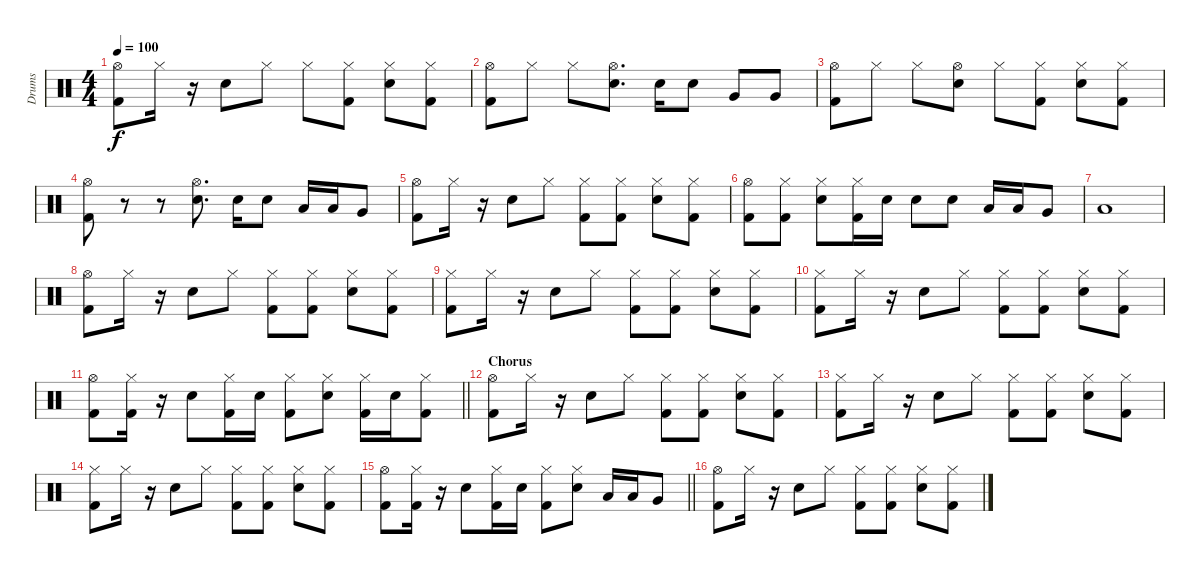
\track ("Drums" "Drums") {instrument percussion}
\staff {score}
\articulation defaults
\ts (4 4)
\tempo 100
\clef neutral
\ks c
("Kick (hit) 2" "Hi-Hat (open)").8{dy f} "Hi-Hat (closed)".16 r.16 "Electric Snare (hit)".8 "Hi-Hat (closed)".8 "Hi-Hat (closed)".8 ("Kick (hit) 2" "Hi-Hat (closed)").8 ("Electric Snare (hit)" "Hi-Hat (closed)").8 ("Kick (hit) 2" "Hi-Hat (closed)").8 |
("Kick (hit) 2" "Hi-Hat (open)").8 "Hi-Hat (closed)".8 "Hi-Hat (closed)".8 ("Electric Snare (hit)" "Hi-Hat (open)").8{d} "Electric Snare (hit)".16 "Electric Snare (hit)".8 "Very Low Tom (hit)".8 "Very Low Tom (hit)".8 |
("Kick (hit) 2" "Hi-Hat (open)").8 "Hi-Hat (closed)".8 "Hi-Hat (closed)".8 ("Electric Snare (hit)" "Hi-Hat (open)").8 "Hi-Hat (closed)".8 ("Kick (hit) 2" "Hi-Hat (closed)").8 ("Electric Snare (hit)" "Hi-Hat (closed)").8 ("Kick (hit) 2" "Hi-Hat (closed)").8 |
("Kick (hit) 2" "Hi-Hat (open)").8 r.8 r.8 ("Electric Snare (hit)" "Hi-Hat (open)").8{d} "Electric Snare (hit)".16 "Electric Snare (hit)".8 "Low Tom (hit)".16 "Low Tom (hit)".16 "Very Low Tom (hit)".8 |
("Kick (hit) 2" "Hi-Hat (open)").8 "Hi-Hat (closed)".16 r.16 "Electric Snare (hit)".8 "Hi-Hat (closed)".8 ("Kick (hit) 2" "Hi-Hat (closed)").8 ("Kick (hit) 2" "Hi-Hat (closed)").8 ("Electric Snare (hit)" "Hi-Hat (closed)").8 ("Kick (hit) 2" "Hi-Hat (closed)").8 |
("Kick (hit) 2" "Hi-Hat (open)").8 ("Kick (hit) 2" "Hi-Hat (closed)").8 ("Electric Snare (hit)" "Hi-Hat (closed)").8 ("Kick (hit) 2" "Hi-Hat (closed)").16 "Electric Snare (hit)".16 "Electric Snare (hit)".8 "Electric Snare (hit)".8 "Low Tom (hit)".16 "Low Tom (hit)".16 "Very Low Tom (hit)".8 |
"Low Floor Tom (hit)".1 |
("Kick (hit) 2" "Hi-Hat (open)").8 "Hi-Hat (closed)".16 r.16 "Electric Snare (hit)".8 "Hi-Hat (closed)".8 ("Kick (hit) 2" "Hi-Hat (closed)").8 ("Kick (hit) 2" "Hi-Hat (closed)").8 ("Electric Snare (hit)" "Hi-Hat (closed)").8 ("Kick (hit) 2" "Hi-Hat (closed)").8 |
("Kick (hit) 2" "Hi-Hat (closed)").8 "Hi-Hat (closed)".16 r.16 "Electric Snare (hit)".8 "Hi-Hat (closed)".8 ("Kick (hit) 2" "Hi-Hat (closed)").8 ("Kick (hit) 2" "Hi-Hat (closed)").8 ("Electric Snare (hit)" "Hi-Hat (closed)").8 ("Kick (hit) 2" "Hi-Hat (closed)").8 |
("Kick (hit) 2" "Hi-Hat (closed)").8 "Hi-Hat (closed)".16 r.16 "Electric Snare (hit)".8 "Hi-Hat (closed)".8 ("Kick (hit) 2" "Hi-Hat (closed)").8 ("Kick (hit) 2" "Hi-Hat (closed)").8 ("Electric Snare (hit)" "Hi-Hat (closed)").8 ("Kick (hit) 2" "Hi-Hat (closed)").8 |
\barLineRight lightlight
("Kick (hit) 2" "Hi-Hat (open)").8 ("Kick (hit) 2" "Hi-Hat (closed)").16 r.16 "Electric Snare (hit)".8 ("Kick (hit) 2" "Hi-Hat (closed)").16 "Electric Snare (hit)".16 ("Kick (hit) 2" "Hi-Hat (closed)").8 ("Electric Snare (hit)" "Hi-Hat (closed)").8 ("Kick (hit) 2" "Hi-Hat (closed)").16 "Electric Snare (hit)".16 ("Kick (hit) 2" "Hi-Hat (closed)").8 |
\section ("" "Chorus")
("Kick (hit) 2" "Hi-Hat (open)").8 "Hi-Hat (closed)".16 r.16 "Electric Snare (hit)".8 "Hi-Hat (closed)".8 ("Kick (hit) 2" "Hi-Hat (closed)").8 ("Kick (hit) 2" "Hi-Hat (closed)").8 ("Electric Snare (hit)" "Hi-Hat (closed)").8 ("Kick (hit) 2" "Hi-Hat (closed)").8 |
("Kick (hit) 2" "Hi-Hat (closed)").8 "Hi-Hat (closed)".16 r.16 "Electric Snare (hit)".8 "Hi-Hat (closed)".8 ("Kick (hit) 2" "Hi-Hat (closed)").8 ("Kick (hit) 2" "Hi-Hat (closed)").8 ("Electric Snare (hit)" "Hi-Hat (closed)").8 ("Kick (hit) 2" "Hi-Hat (closed)").8 |
("Kick (hit) 2" "Hi-Hat (closed)").8 "Hi-Hat (closed)".16 r.16 "Electric Snare (hit)".8 "Hi-Hat (closed)".8 ("Kick (hit) 2" "Hi-Hat (closed)").8 ("Kick (hit) 2" "Hi-Hat (closed)").8 ("Electric Snare (hit)" "Hi-Hat (closed)").8 ("Kick (hit) 2" "Hi-Hat (closed)").8 |
\barLineRight lightlight
("Kick (hit) 2" "Hi-Hat (open)").8 ("Kick (hit) 2" "Hi-Hat (closed)").16 r.16 "Electric Snare (hit)".8 ("Kick (hit) 2" "Hi-Hat (closed)").16 "Electric Snare (hit)".16 ("Kick (hit) 2" "Hi-Hat (closed)").8 ("Electric Snare (hit)" "Hi-Hat (closed)").8 "Low Tom (hit)".16 "Low Tom (hit)".16 "Very Low Tom (hit)".8 |
("Kick (hit) 2" "Hi-Hat (open)").8{volume 10} "Hi-Hat (closed)".16 r.16 "Electric Snare (hit)".8 "Hi-Hat (closed)".8 ("Kick (hit) 2" "Hi-Hat (closed)").8 ("Kick (hit) 2" "Hi-Hat (closed)").8 ("Electric Snare (hit)" "Hi-Hat (closed)").8 ("Kick (hit) 2" "Hi-Hat (closed)").8
